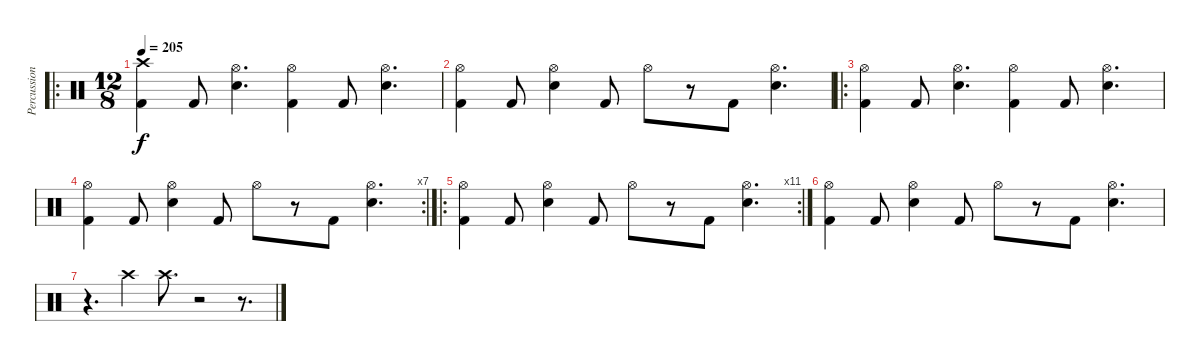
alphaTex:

\track ("Percussion" "Percussion") {instrument percussion}
\staff {score}
\articulation defaults
\ro
\ts (12 8)
\tempo 205
\clef neutral
\ks c
("Crash high (hit)" "Kick (hit) 2").4{dy f} "Kick (hit) 2".8 ("Hi-Hat (open)" "Snare (hit) 2").4{d} ("Hi-Hat (open)" "Kick (hit) 2").4 "Kick (hit) 2".8 ("Hi-Hat (open)" "Snare (hit) 2").4{d} |
("Hi-Hat (open)" "Kick (hit) 2").4 "Kick (hit) 2".8 ("Hi-Hat (open)" "Snare (hit) 2").4 "Kick (hit) 2".8 "Hi-Hat (open)".8 r.8 "Kick (hit) 2".8 ("Hi-Hat (open)" "Snare (hit) 2").4{d} |
\ro
("Hi-Hat (open)" "Kick (hit) 2").4 "Kick (hit) 2".8 ("Hi-Hat (open)" "Snare (hit) 2").4{d} ("Hi-Hat (open)" "Kick (hit) 2").4 "Kick (hit) 2".8 ("Hi-Hat (open)" "Snare (hit) 2").4{d} |
\rc 7
("Hi-Hat (open)" "Kick (hit) 2").4 "Kick (hit) 2".8 ("Hi-Hat (open)" "Snare (hit) 2").4 "Kick (hit) 2".8 "Hi-Hat (open)".8 r.8 "Kick (hit) 2".8 ("Hi-Hat (open)" "Snare (hit) 2").4{d} |
\ro
\rc 11
("Hi-Hat (open)" "Kick (hit) 2").4 "Kick (hit) 2".8 ("Hi-Hat (open)" "Snare (hit) 2").4 "Kick (hit) 2".8 "Hi-Hat (open)".8 r.8 "Kick (hit) 2".8 ("Hi-Hat (open)" "Snare (hit) 2").4{d} |
("Hi-Hat (open)" "Kick (hit) 2").4 "Kick (hit) 2".8 ("Hi-Hat (open)" "Snare (hit) 2").4 "Kick (hit) 2".8 "Hi-Hat (open)".8 r.8 "Kick (hit) 2".8 ("Hi-Hat (open)" "Snare (hit) 2").4{d} |
r.4{d} "Crash high (hit)".4 "Crash high (hit)".8{d} r.2 r.8{d}
